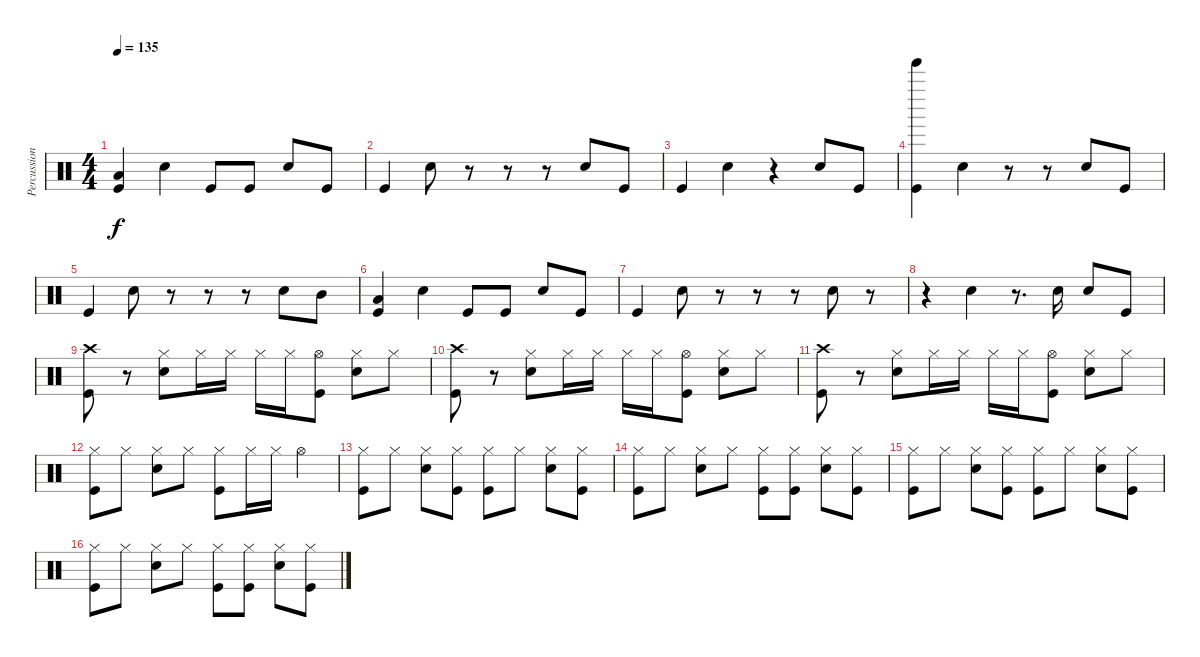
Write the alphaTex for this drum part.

\track ("Percussion - Mark Gajadhar" "Percussion") {instrument percussion}
\staff {score}
\articulation defaults
\ts (4 4)
\tempo 135
\clef neutral
\ks c
("Low Tom (hit)" "Kick (hit)").4{dy f} "Snare (hit) 2".4 "Kick (hit)".8 "Kick (hit)".8 "Snare (hit) 2".8 "Kick (hit)".8 |
"Kick (hit)".4 "Snare (hit) 2".8 r.8 r.8 r.8 "Snare (hit) 2".8 "Kick (hit)".8 |
"Kick (hit)".4 "Snare (hit) 2".4 r.4 "Snare (hit) 2".8 "Kick (hit)".8 |
("Tinkle Bell (hit)" "Kick (hit)").4 "Snare (hit) 2".4 r.8 r.8 "Snare (hit) 2".8 "Kick (hit)".8 |
"Kick (hit)".4 "Snare (hit) 2".8 r.8 r.8 r.8 "Snare (hit) 2".8 "Mid Tom (hit)".8 |
("Low Tom (hit)" "Kick (hit)").4 "Snare (hit) 2".4 "Kick (hit)".8 "Kick (hit)".8 "Snare (hit) 2".8 "Kick (hit)".8 |
"Kick (hit)".4 "Snare (hit) 2".8 r.8 r.8 r.8 "Snare (hit) 2".8 r.8 |
r.4 "Snare (hit) 2".4 r.8{d} "Snare (hit) 2".16 "Snare (hit) 2".8 "Kick (hit)".8 |
("Crash high (hit)" "Kick (hit)").8 r.8 ("Snare (hit) 2" "Hi-Hat (closed)").8 "Hi-Hat (closed)".16 "Hi-Hat (closed)".16 "Hi-Hat (closed)".16 "Hi-Hat (closed)".16 ("Hi-Hat (open)" "Kick (hit)").8 ("Snare (hit) 2" "Hi-Hat (closed)").8 "Hi-Hat (closed)".8 |
("Crash high (hit)" "Kick (hit)").8 r.8 ("Snare (hit) 2" "Hi-Hat (closed)").8 "Hi-Hat (closed)".16 "Hi-Hat (closed)".16 "Hi-Hat (closed)".16 "Hi-Hat (closed)".16 ("Hi-Hat (open)" "Kick (hit)").8 ("Snare (hit) 2" "Hi-Hat (closed)").8 "Hi-Hat (closed)".8 |
("Crash high (hit)" "Kick (hit)").8 r.8 ("Snare (hit) 2" "Hi-Hat (closed)").8 "Hi-Hat (closed)".16 "Hi-Hat (closed)".16 "Hi-Hat (closed)".16 "Hi-Hat (closed)".16 ("Hi-Hat (open)" "Kick (hit)").8 ("Snare (hit) 2" "Hi-Hat (closed)").8 "Hi-Hat (closed)".8 |
("Hi-Hat (closed)" "Kick (hit)").8 "Hi-Hat (closed)".8 ("Snare (hit) 2" "Hi-Hat (closed)").8 "Hi-Hat (closed)".8 ("Hi-Hat (closed)" "Kick (hit)").8 "Hi-Hat (closed)".16 "Hi-Hat (closed)".16 "Hi-Hat (open)".4 |
("Hi-Hat (closed)" "Kick (hit)").8 "Hi-Hat (closed)".8 ("Snare (hit) 2" "Hi-Hat (closed)").8 ("Hi-Hat (closed)" "Kick (hit)").8 ("Hi-Hat (closed)" "Kick (hit)").8 "Hi-Hat (closed)".8 ("Snare (hit) 2" "Hi-Hat (closed)").8 ("Hi-Hat (closed)" "Kick (hit)").8 |
("Hi-Hat (closed)" "Kick (hit)").8 "Hi-Hat (closed)".8 ("Snare (hit) 2" "Hi-Hat (closed)").8 "Hi-Hat (closed)".8 ("Hi-Hat (closed)" "Kick (hit)").8 ("Hi-Hat (closed)" "Kick (hit)").8 ("Snare (hit) 2" "Hi-Hat (closed)").8 ("Hi-Hat (closed)" "Kick (hit)").8 |
("Hi-Hat (closed)" "Kick (hit)").8 "Hi-Hat (closed)".8 ("Snare (hit) 2" "Hi-Hat (closed)").8 ("Hi-Hat (closed)" "Kick (hit)").8 ("Hi-Hat (closed)" "Kick (hit)").8 "Hi-Hat (closed)".8 ("Snare (hit) 2" "Hi-Hat (closed)").8 ("Hi-Hat (closed)" "Kick (hit)").8 |
("Hi-Hat (closed)" "Kick (hit)").8 "Hi-Hat (closed)".8 ("Snare (hit) 2" "Hi-Hat (closed)").8 "Hi-Hat (closed)".8 ("Hi-Hat (closed)" "Kick (hit)").8 ("Hi-Hat (closed)" "Kick (hit)").8 ("Snare (hit) 2" "Hi-Hat (closed)").8 ("Hi-Hat (closed)" "Kick (hit)").8
